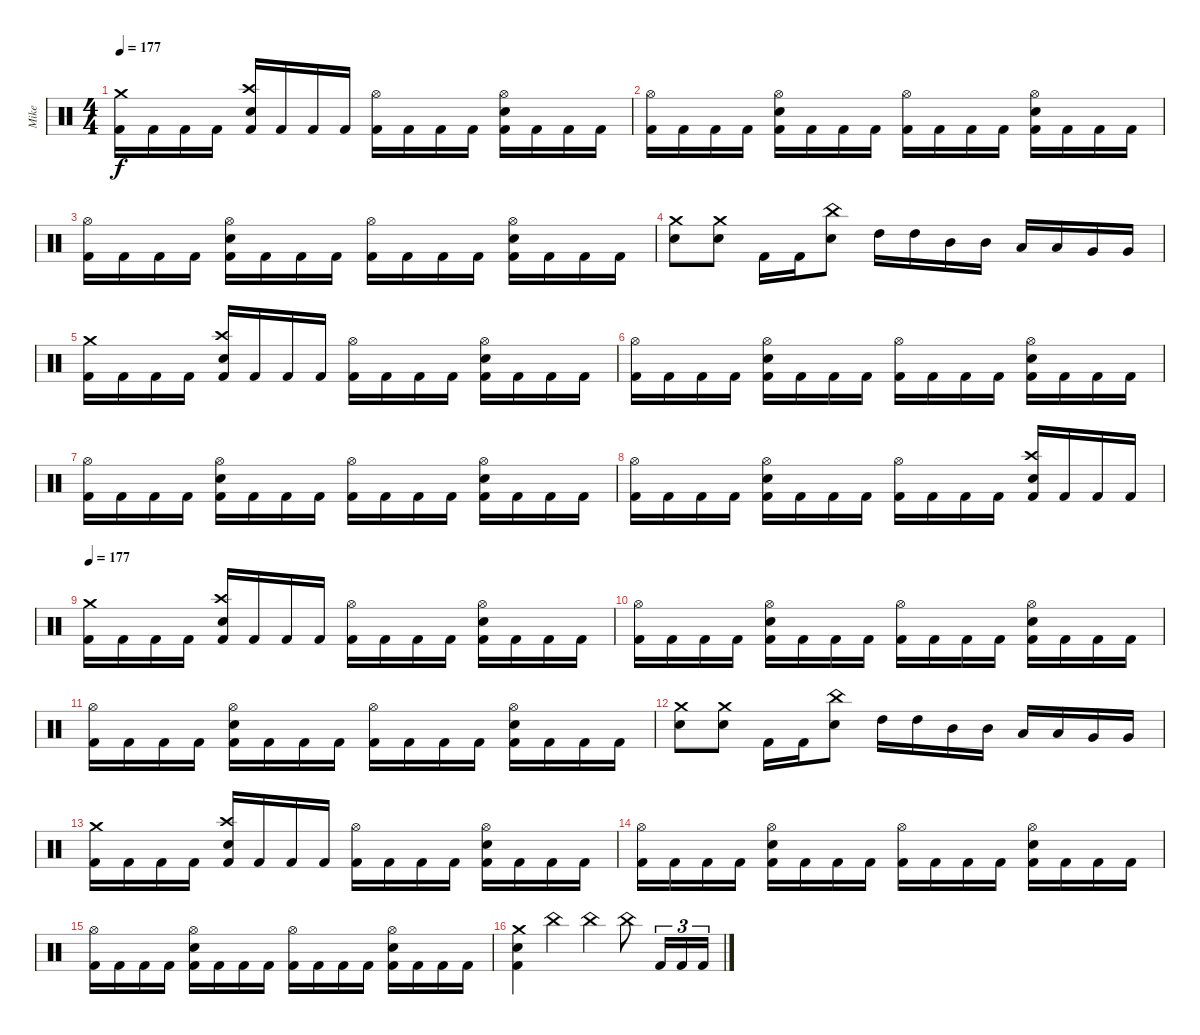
\track ("Mike" "Mike") {instrument percussion}
\staff {score}
\articulation defaults
\ts (4 4)
\tempo 177
\clef neutral
\ks c
("Crash medium (hit)" "Kick (hit) 2").16{dy f} "Kick (hit) 2".16 "Kick (hit) 2".16 "Kick (hit) 2".16 ("Crash high (hit)" "Electric Snare (hit)" "Kick (hit) 2").16 "Kick (hit) 2".16 "Kick (hit) 2".16 "Kick (hit) 2".16 ("Hi-Hat (open)" "Kick (hit) 2").16 "Kick (hit) 2".16 "Kick (hit) 2".16 "Kick (hit) 2".16 ("Hi-Hat (open)" "Electric Snare (hit)" "Kick (hit) 2").16 "Kick (hit) 2".16 "Kick (hit) 2".16 "Kick (hit) 2".16 |
("Hi-Hat (open)" "Kick (hit) 2").16 "Kick (hit) 2".16 "Kick (hit) 2".16 "Kick (hit) 2".16 ("Hi-Hat (open)" "Electric Snare (hit)" "Kick (hit) 2").16 "Kick (hit) 2".16 "Kick (hit) 2".16 "Kick (hit) 2".16 ("Hi-Hat (open)" "Kick (hit) 2").16 "Kick (hit) 2".16 "Kick (hit) 2".16 "Kick (hit) 2".16 ("Hi-Hat (open)" "Electric Snare (hit)" "Kick (hit) 2").16 "Kick (hit) 2".16 "Kick (hit) 2".16 "Kick (hit) 2".16 |
("Hi-Hat (open)" "Kick (hit) 2").16 "Kick (hit) 2".16 "Kick (hit) 2".16 "Kick (hit) 2".16 ("Hi-Hat (open)" "Electric Snare (hit)" "Kick (hit) 2").16 "Kick (hit) 2".16 "Kick (hit) 2".16 "Kick (hit) 2".16 ("Hi-Hat (open)" "Kick (hit) 2").16 "Kick (hit) 2".16 "Kick (hit) 2".16 "Kick (hit) 2".16 ("Hi-Hat (open)" "Electric Snare (hit)" "Kick (hit) 2").16 "Kick (hit) 2".16 "Kick (hit) 2".16 "Kick (hit) 2".16 |
("Crash medium (hit)" "Electric Snare (hit)").8 ("Crash medium (hit)" "Electric Snare (hit)").8 "Kick (hit) 2".16 "Kick (hit) 2".16 ("China (hit)" "Electric Snare (hit)").8 "High Tom (hit)".16 "High Tom (hit)".16 "Mid Tom (hit)".16 "Mid Tom (hit)".16 "Low Tom (hit)".16 "Low Tom (hit)".16 "Very Low Tom (hit)".16 "Very Low Tom (hit)".16 |
("Crash medium (hit)" "Kick (hit) 2").16 "Kick (hit) 2".16 "Kick (hit) 2".16 "Kick (hit) 2".16 ("Crash high (hit)" "Electric Snare (hit)" "Kick (hit) 2").16 "Kick (hit) 2".16 "Kick (hit) 2".16 "Kick (hit) 2".16 ("Hi-Hat (open)" "Kick (hit) 2").16 "Kick (hit) 2".16 "Kick (hit) 2".16 "Kick (hit) 2".16 ("Hi-Hat (open)" "Electric Snare (hit)" "Kick (hit) 2").16 "Kick (hit) 2".16 "Kick (hit) 2".16 "Kick (hit) 2".16 |
("Hi-Hat (open)" "Kick (hit) 2").16 "Kick (hit) 2".16 "Kick (hit) 2".16 "Kick (hit) 2".16 ("Hi-Hat (open)" "Electric Snare (hit)" "Kick (hit) 2").16 "Kick (hit) 2".16 "Kick (hit) 2".16 "Kick (hit) 2".16 ("Hi-Hat (open)" "Kick (hit) 2").16 "Kick (hit) 2".16 "Kick (hit) 2".16 "Kick (hit) 2".16 ("Hi-Hat (open)" "Electric Snare (hit)" "Kick (hit) 2").16 "Kick (hit) 2".16 "Kick (hit) 2".16 "Kick (hit) 2".16 |
("Hi-Hat (open)" "Kick (hit) 2").16 "Kick (hit) 2".16 "Kick (hit) 2".16 "Kick (hit) 2".16 ("Hi-Hat (open)" "Electric Snare (hit)" "Kick (hit) 2").16 "Kick (hit) 2".16 "Kick (hit) 2".16 "Kick (hit) 2".16 ("Hi-Hat (open)" "Kick (hit) 2").16 "Kick (hit) 2".16 "Kick (hit) 2".16 "Kick (hit) 2".16 ("Hi-Hat (open)" "Electric Snare (hit)" "Kick (hit) 2").16 "Kick (hit) 2".16 "Kick (hit) 2".16 "Kick (hit) 2".16 |
("Hi-Hat (open)" "Kick (hit) 2").16 "Kick (hit) 2".16 "Kick (hit) 2".16 "Kick (hit) 2".16 ("Hi-Hat (open)" "Electric Snare (hit)" "Kick (hit) 2").16 "Kick (hit) 2".16 "Kick (hit) 2".16 "Kick (hit) 2".16 ("Hi-Hat (open)" "Kick (hit) 2").16 "Kick (hit) 2".16 "Kick (hit) 2".16 "Kick (hit) 2".16 ("Crash high (hit)" "Electric Snare (hit)" "Kick (hit) 2").16 "Kick (hit) 2".16 "Kick (hit) 2".16 "Kick (hit) 2".16 |
\tempo 177
("Crash medium (hit)" "Kick (hit) 2").16 "Kick (hit) 2".16 "Kick (hit) 2".16 "Kick (hit) 2".16 ("Crash high (hit)" "Electric Snare (hit)" "Kick (hit) 2").16 "Kick (hit) 2".16 "Kick (hit) 2".16 "Kick (hit) 2".16 ("Hi-Hat (open)" "Kick (hit) 2").16 "Kick (hit) 2".16 "Kick (hit) 2".16 "Kick (hit) 2".16 ("Hi-Hat (open)" "Electric Snare (hit)" "Kick (hit) 2").16 "Kick (hit) 2".16 "Kick (hit) 2".16 "Kick (hit) 2".16 |
("Hi-Hat (open)" "Kick (hit) 2").16 "Kick (hit) 2".16 "Kick (hit) 2".16 "Kick (hit) 2".16 ("Hi-Hat (open)" "Electric Snare (hit)" "Kick (hit) 2").16 "Kick (hit) 2".16 "Kick (hit) 2".16 "Kick (hit) 2".16 ("Hi-Hat (open)" "Kick (hit) 2").16 "Kick (hit) 2".16 "Kick (hit) 2".16 "Kick (hit) 2".16 ("Hi-Hat (open)" "Electric Snare (hit)" "Kick (hit) 2").16 "Kick (hit) 2".16 "Kick (hit) 2".16 "Kick (hit) 2".16 |
("Hi-Hat (open)" "Kick (hit) 2").16 "Kick (hit) 2".16 "Kick (hit) 2".16 "Kick (hit) 2".16 ("Hi-Hat (open)" "Electric Snare (hit)" "Kick (hit) 2").16 "Kick (hit) 2".16 "Kick (hit) 2".16 "Kick (hit) 2".16 ("Hi-Hat (open)" "Kick (hit) 2").16 "Kick (hit) 2".16 "Kick (hit) 2".16 "Kick (hit) 2".16 ("Hi-Hat (open)" "Electric Snare (hit)" "Kick (hit) 2").16 "Kick (hit) 2".16 "Kick (hit) 2".16 "Kick (hit) 2".16 |
("Crash medium (hit)" "Electric Snare (hit)").8 ("Crash medium (hit)" "Electric Snare (hit)").8 "Kick (hit) 2".16 "Kick (hit) 2".16 ("China (hit)" "Electric Snare (hit)").8 "High Tom (hit)".16 "High Tom (hit)".16 "Mid Tom (hit)".16 "Mid Tom (hit)".16 "Low Tom (hit)".16 "Low Tom (hit)".16 "Very Low Tom (hit)".16 "Very Low Tom (hit)".16 |
("Crash medium (hit)" "Kick (hit) 2").16 "Kick (hit) 2".16 "Kick (hit) 2".16 "Kick (hit) 2".16 ("Crash high (hit)" "Electric Snare (hit)" "Kick (hit) 2").16 "Kick (hit) 2".16 "Kick (hit) 2".16 "Kick (hit) 2".16 ("Hi-Hat (open)" "Kick (hit) 2").16 "Kick (hit) 2".16 "Kick (hit) 2".16 "Kick (hit) 2".16 ("Hi-Hat (open)" "Electric Snare (hit)" "Kick (hit) 2").16 "Kick (hit) 2".16 "Kick (hit) 2".16 "Kick (hit) 2".16 |
("Hi-Hat (open)" "Kick (hit) 2").16 "Kick (hit) 2".16 "Kick (hit) 2".16 "Kick (hit) 2".16 ("Hi-Hat (open)" "Electric Snare (hit)" "Kick (hit) 2").16 "Kick (hit) 2".16 "Kick (hit) 2".16 "Kick (hit) 2".16 ("Hi-Hat (open)" "Kick (hit) 2").16 "Kick (hit) 2".16 "Kick (hit) 2".16 "Kick (hit) 2".16 ("Hi-Hat (open)" "Electric Snare (hit)" "Kick (hit) 2").16 "Kick (hit) 2".16 "Kick (hit) 2".16 "Kick (hit) 2".16 |
("Hi-Hat (open)" "Kick (hit) 2").16 "Kick (hit) 2".16 "Kick (hit) 2".16 "Kick (hit) 2".16 ("Hi-Hat (open)" "Electric Snare (hit)" "Kick (hit) 2").16 "Kick (hit) 2".16 "Kick (hit) 2".16 "Kick (hit) 2".16 ("Hi-Hat (open)" "Kick (hit) 2").16 "Kick (hit) 2".16 "Kick (hit) 2".16 "Kick (hit) 2".16 ("Hi-Hat (open)" "Electric Snare (hit)" "Kick (hit) 2").16 "Kick (hit) 2".16 "Kick (hit) 2".16 "Kick (hit) 2".16 |
("Crash medium (hit)" "Electric Snare (hit)" "Kick (hit) 2").4 "China (hit)".4 "China (hit)".4 "China (hit)".8 "Kick (hit) 2".16{tu (3 2)} "Kick (hit) 2".16{tu (3 2)} "Kick (hit) 2".16{tu (3 2)}
